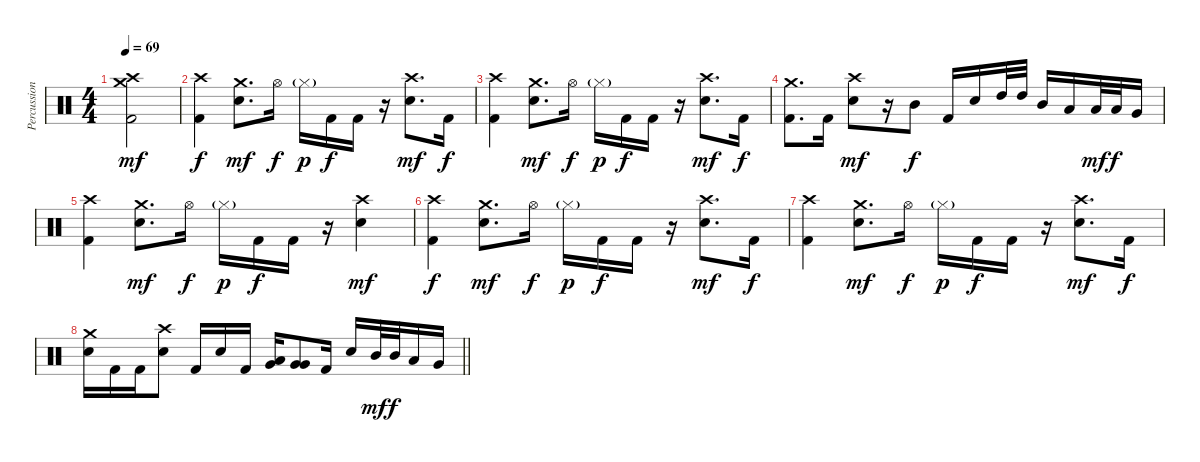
\track ("Percussion" "Percussion") {instrument percussion}
\staff {score}
\articulation defaults
\ts (4 4)
\tempo 69
\clef neutral
\ks c
("Crash high (hit)" "Crash medium (hit)" "Kick (hit) 2").2{dy mf} |
("Crash high (hit)" "Kick (hit) 2").4{dy f} ("Crash medium (hit)" "Snare (hit) 2").8{d dy mf} "Hi-Hat (open)".16{dy f} "Hi-Hat (closed)"{g}.16{dy p} "Kick (hit) 2".16{dy f} "Kick (hit) 2".16 r.16 ("Crash high (hit)" "Snare (hit) 2").8{d dy mf} "Kick (hit) 2".16{dy f} |
("Crash high (hit)" "Kick (hit) 2").4 ("Crash medium (hit)" "Snare (hit) 2").8{d dy mf} "Hi-Hat (open)".16{dy f} "Hi-Hat (closed)"{g}.16{dy p} "Kick (hit) 2".16{dy f} "Kick (hit) 2".16 r.16 ("Crash high (hit)" "Snare (hit) 2").8{d dy mf} "Kick (hit) 2".16{dy f} |
("Crash medium (hit)" "Kick (hit) 2").8{d} "Kick (hit) 2".16 ("Crash high (hit)" "Snare (hit) 2").8{dy mf} r.16 "Mid Tom (hit)".8{dy f} "Kick (hit) 2".16 "Snare (hit) 2".16 "High Tom (hit)".32 "High Tom (hit)".32 "Mid Tom (hit)".16 "Low Tom (hit)".16 "Low Tom (hit)".32{dy mf} "Low Tom (hit)".32{dy f} "Very Low Tom (hit)".16 |
("Crash high (hit)" "Kick (hit) 2").4 ("Crash medium (hit)" "Snare (hit) 2").8{d dy mf} "Hi-Hat (open)".16{dy f} "Hi-Hat (closed)"{g}.16{dy p} "Kick (hit) 2".16{dy f} "Kick (hit) 2".16 r.16 ("Crash high (hit)" "Snare (hit) 2").4{dy mf} |
("Crash high (hit)" "Kick (hit) 2").4{dy f} ("Crash medium (hit)" "Snare (hit) 2").8{d dy mf} "Hi-Hat (open)".16{dy f} "Hi-Hat (closed)"{g}.16{dy p} "Kick (hit) 2".16{dy f} "Kick (hit) 2".16 r.16 ("Crash high (hit)" "Snare (hit) 2").8{d dy mf} "Kick (hit) 2".16{dy f} |
("Crash high (hit)" "Kick (hit) 2").4 ("Crash medium (hit)" "Snare (hit) 2").8{d dy mf} "Hi-Hat (open)".16{dy f} "Hi-Hat (closed)"{g}.16{dy p} "Kick (hit) 2".16{dy f} "Kick (hit) 2".16 r.16 ("Crash high (hit)" "Snare (hit) 2").8{d dy mf} "Kick (hit) 2".16{dy f} |
\barLineRight lightlight
("Crash medium (hit)" "Snare (hit) 2").16 "Kick (hit) 2".16 "Kick (hit) 2".16 ("Crash high (hit)" "Snare (hit) 2").8 "Kick (hit) 2".16 "Snare (hit) 2".16 "Kick (hit) 2".16 ("Low Floor Tom (hit)" "Very Low Tom (hit)").16 ("Very Low Tom (hit)" "Very Low Tom (hit)").8 "Kick (hit) 2".16 "Snare (hit) 2".16 "Mid Tom (hit)".32{dy mf} "Mid Tom (hit)".32{dy f} "Low Tom (hit)".16 "Very Low Tom (hit)".16
